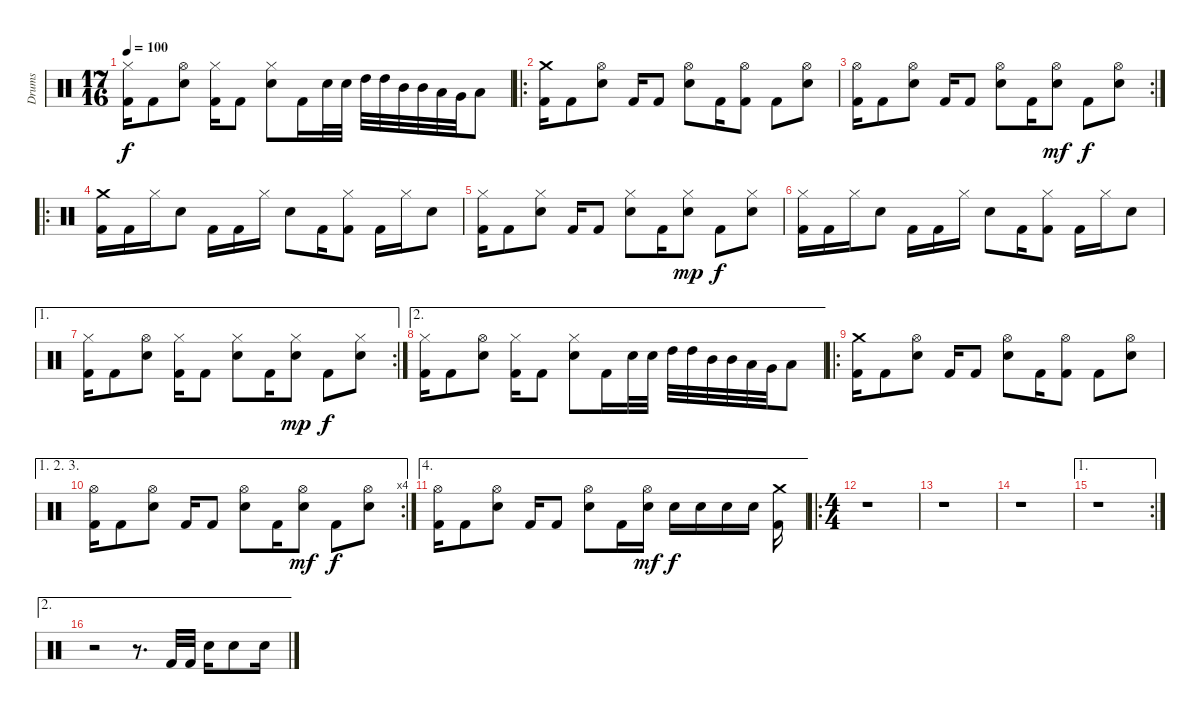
\track ("Drums" "Drums") {instrument percussion}
\staff {score}
\articulation defaults
\ts (17 16)
\tempo 100
\clef neutral
\ks c
("Hi-Hat (closed)" "Kick (hit) 2").16{dy f} "Kick (hit) 2".8 ("Hi-Hat (open)" "Electric Snare (hit)").8 ("Hi-Hat (closed)" "Kick (hit) 2").16 "Kick (hit) 2".8 ("Hi-Hat (closed)" "Electric Snare (hit)").8 "Kick (hit) 2".16 "Electric Snare (hit)".32 "Electric Snare (hit)".32 "High Tom (hit)".32 "High Tom (hit)".32 "Mid Tom (hit)".32 "Mid Tom (hit)".32 "Low Tom (hit)".32 "Very Low Tom (hit)".32 "Low Floor Tom (hit)".8 |
\ro
("Crash medium (hit)" "Kick (hit) 2").16 "Kick (hit) 2".8 ("Hi-Hat (open)" "Electric Snare (hit)").8 "Kick (hit) 2".16 "Kick (hit) 2".8 ("Hi-Hat (open)" "Electric Snare (hit)").8 "Kick (hit) 2".16 ("Hi-Hat (open)" "Kick (hit) 2").8 "Kick (hit) 2".8 ("Hi-Hat (open)" "Electric Snare (hit)").8 |
\rc 2
("Hi-Hat (open)" "Kick (hit) 2").16 "Kick (hit) 2".8 ("Hi-Hat (open)" "Electric Snare (hit)").8 "Kick (hit) 2".16 "Kick (hit) 2".8 ("Hi-Hat (open)" "Electric Snare (hit)").8 "Kick (hit) 2".16 ("Hi-Hat (open)" "Electric Snare (hit)").8{dy mf} "Kick (hit) 2".8{dy f} ("Hi-Hat (open)" "Electric Snare (hit)").8 |
\ro
("Crash medium (hit)" "Kick (hit) 2").16 "Kick (hit) 2".16 "Hi-Hat (closed)".16 "Electric Snare (hit)".8 "Kick (hit) 2".16 "Kick (hit) 2".16 "Hi-Hat (closed)".16 "Electric Snare (hit)".8 "Kick (hit) 2".16 ("Hi-Hat (closed)" "Kick (hit) 2").8 "Kick (hit) 2".16 "Hi-Hat (closed)".16 "Electric Snare (hit)".8 |
("Hi-Hat (closed)" "Kick (hit) 2").16 "Kick (hit) 2".8 ("Hi-Hat (closed)" "Electric Snare (hit)").8 "Kick (hit) 2".16 "Kick (hit) 2".8 ("Hi-Hat (closed)" "Electric Snare (hit)").8 "Kick (hit) 2".16 ("Hi-Hat (closed)" "Electric Snare (hit)").8{dy mp} "Kick (hit) 2".8{dy f} ("Hi-Hat (closed)" "Electric Snare (hit)").8 |
("Hi-Hat (closed)" "Kick (hit) 2").16 "Kick (hit) 2".16 "Hi-Hat (closed)".16 "Electric Snare (hit)".8 "Kick (hit) 2".16 "Kick (hit) 2".16 "Hi-Hat (closed)".16 "Electric Snare (hit)".8 "Kick (hit) 2".16 ("Hi-Hat (closed)" "Kick (hit) 2").8 "Kick (hit) 2".16 "Hi-Hat (closed)".16 "Electric Snare (hit)".8 |
\ae 1
\rc 2
("Hi-Hat (closed)" "Kick (hit) 2").16 "Kick (hit) 2".8 ("Hi-Hat (open)" "Electric Snare (hit)").8 ("Hi-Hat (closed)" "Kick (hit) 2").16 "Kick (hit) 2".8 ("Hi-Hat (closed)" "Electric Snare (hit)").8 "Kick (hit) 2".16 ("Hi-Hat (closed)" "Electric Snare (hit)").8{dy mp} "Kick (hit) 2".8{dy f} ("Hi-Hat (closed)" "Electric Snare (hit)").8 |
\ae 2
("Hi-Hat (closed)" "Kick (hit) 2").16 "Kick (hit) 2".8 ("Hi-Hat (open)" "Electric Snare (hit)").8 ("Hi-Hat (closed)" "Kick (hit) 2").16 "Kick (hit) 2".8 ("Hi-Hat (closed)" "Electric Snare (hit)").8 "Kick (hit) 2".16 "Electric Snare (hit)".32 "Electric Snare (hit)".32 "High Tom (hit)".32 "High Tom (hit)".32 "Mid Tom (hit)".32 "Mid Tom (hit)".32 "Low Tom (hit)".32 "Very Low Tom (hit)".32 "Low Floor Tom (hit)".8 |
\ro
("Crash medium (hit)" "Kick (hit) 2").16 "Kick (hit) 2".8 ("Hi-Hat (open)" "Electric Snare (hit)").8 "Kick (hit) 2".16 "Kick (hit) 2".8 ("Hi-Hat (open)" "Electric Snare (hit)").8 "Kick (hit) 2".16 ("Hi-Hat (open)" "Kick (hit) 2").8 "Kick (hit) 2".8 ("Hi-Hat (open)" "Electric Snare (hit)").8 |
\ae (1 2 3)
\rc 4
("Hi-Hat (open)" "Kick (hit) 2").16 "Kick (hit) 2".8 ("Hi-Hat (open)" "Electric Snare (hit)").8 "Kick (hit) 2".16 "Kick (hit) 2".8 ("Hi-Hat (open)" "Electric Snare (hit)").8 "Kick (hit) 2".16 ("Hi-Hat (open)" "Electric Snare (hit)").8{dy mf} "Kick (hit) 2".8{dy f} ("Hi-Hat (open)" "Electric Snare (hit)").8 |
\ae 4
("Hi-Hat (open)" "Kick (hit) 2").16 "Kick (hit) 2".8 ("Hi-Hat (open)" "Electric Snare (hit)").8 "Kick (hit) 2".16 "Kick (hit) 2".8 ("Hi-Hat (open)" "Electric Snare (hit)").8 "Kick (hit) 2".16 ("Hi-Hat (open)" "Electric Snare (hit)").16{dy mf} "Electric Snare (hit)".16{dy f} "Electric Snare (hit)".16 "Electric Snare (hit)".16 "Electric Snare (hit)".16 ("Crash medium (hit)" "Kick (hit) 2").16 |
\ro
\ts (4 4)
r.1 |
r.1 |
r.1 |
\ae 1
\rc 2
r.1 |
\ae 2
r.2 r.8{d} "Kick (hit) 2".32 "Kick (hit) 2".32 "Electric Snare (hit)".16 "Electric Snare (hit)".8 "Electric Snare (hit)".16
